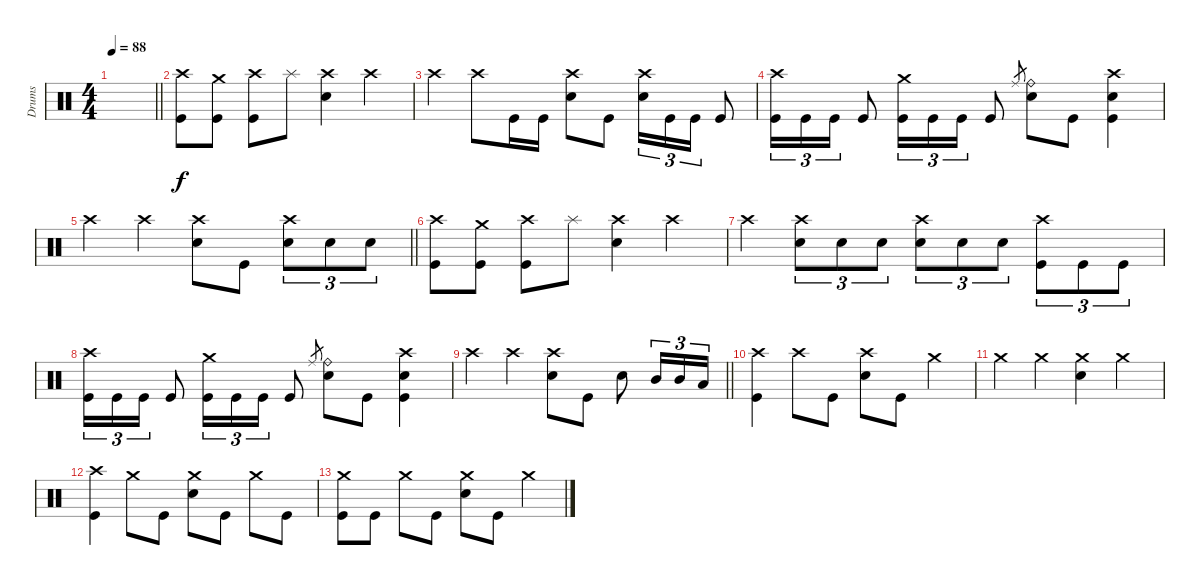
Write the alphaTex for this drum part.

\track ("Drums" "Drums") {instrument percussion}
\staff
\articulation defaults
\ts (4 4)
\tempo 88
\clef neutral
\barLineRight lightlight
\ks c
|
\section ("" "")
("Crash high (hit)" "Kick (hit)").8 ("Crash medium (hit)" "Kick (hit)").8 ("Crash high (hit)" "Kick (hit)").8 "Splash (hit)".8 ("Crash high (hit)" "Electric Snare (hit)").4 "Crash high (hit)".4 |
"Crash high (hit)".4 "Crash high (hit)".8 "Kick (hit)".16 "Kick (hit)".16 ("Crash high (hit)" "Electric Snare (hit)").8 "Kick (hit)".8 ("Crash high (hit)" "Electric Snare (hit)").16{tu (3 2)} "Kick (hit)".16{tu (3 2)} "Kick (hit)".16{tu (3 2)} "Kick (hit)".8 |
("Crash high (hit)" "Kick (hit)").16{tu (3 2)} "Kick (hit)".16{tu (3 2)} "Kick (hit)".16{tu (3 2)} "Kick (hit)".8 ("Crash medium (hit)" "Kick (hit)").16{tu (3 2)} "Kick (hit)".16{tu (3 2)} "Kick (hit)".16{tu (3 2)} "Kick (hit)".8 "Ride (middle)".8{gr} ("Ride (bell)" "Electric Snare (hit)").8 "Kick (hit)".8 ("Crash high (hit)" "Electric Snare (hit)" "Kick (hit)").4 |
\barLineRight lightlight "Crash high (hit)".4 "Crash high (hit)".4
("Crash high (hit)" "Electric Snare (hit)").8 "Kick (hit)".8 ("Crash high (hit)" "Electric Snare (hit)").8{tu (3 2)} "Electric Snare (hit)".8{tu (3 2)} "Electric Snare (hit)".8{tu (3 2)} |
("Crash high (hit)" "Kick (hit)").8 ("Crash medium (hit)" "Kick (hit)").8 ("Crash high (hit)" "Kick (hit)").8 "Splash (hit)".8 ("Crash high (hit)" "Electric Snare (hit)").4 "Crash high (hit)".4 |
"Crash high (hit)".4 ("Crash high (hit)" "Electric Snare (hit)").8{tu (3 2)} "Electric Snare (hit)".8{tu (3 2)} "Electric Snare (hit)".8{tu (3 2)} ("Crash high (hit)" "Electric Snare (hit)").8{tu (3 2)} "Electric Snare (hit)".8{tu (3 2)} "Electric Snare (hit)".8{tu (3 2)} ("Crash high (hit)" "Kick (hit)").8{tu (3 2)} "Kick (hit)".8{tu (3 2)} "Kick (hit)".8{tu (3 2)} |
("Crash high (hit)" "Kick (hit)").16{tu (3 2)} "Kick (hit)".16{tu (3 2)} "Kick (hit)".16{tu (3 2)} "Kick (hit)".8 ("Crash medium (hit)" "Kick (hit)").16{tu (3 2)} "Kick (hit)".16{tu (3 2)} "Kick (hit)".16{tu (3 2)} "Kick (hit)".8 "Ride (middle)".8{gr} ("Ride (bell)" "Electric Snare (hit)").8 "Kick (hit)".8 ("Crash high (hit)" "Electric Snare (hit)" "Kick (hit)").4 |
\barLineRight lightlight "Crash high (hit)".4 "Crash high (hit)".4
("Crash high (hit)" "Electric Snare (hit)").8 "Kick (hit)".8 "Electric Snare (hit)".8 "Mid Tom (hit)".16{tu (3 2)} "Mid Tom (hit)".16{tu (3 2)} "Low Tom (hit)".16{tu (3 2)} |
("Crash high (hit)" "Kick (hit)").4 "Crash high (hit)".8 "Kick (hit)".8 ("Crash high (hit)" "Electric Snare (hit)").8 "Kick (hit)".8 "Crash medium (hit)".4 |
"Crash medium (hit)".4 "Crash medium (hit)".4 ("Crash medium (hit)" "Electric Snare (hit)").4 "Crash medium (hit)".4 |
("Crash high (hit)" "Kick (hit)").4 "Crash medium (hit)".8 "Kick (hit)".8 ("Crash medium (hit)" "Electric Snare (hit)").8 "Kick (hit)".8 "Crash medium (hit)".8 "Kick (hit)".8 |
("Crash medium (hit)" "Kick (hit)").8 "Kick (hit)".8 "Crash medium (hit)".8 "Kick (hit)".8 ("Crash medium (hit)" "Electric Snare (hit)").8 "Kick (hit)".8 "Crash medium (hit)".4
